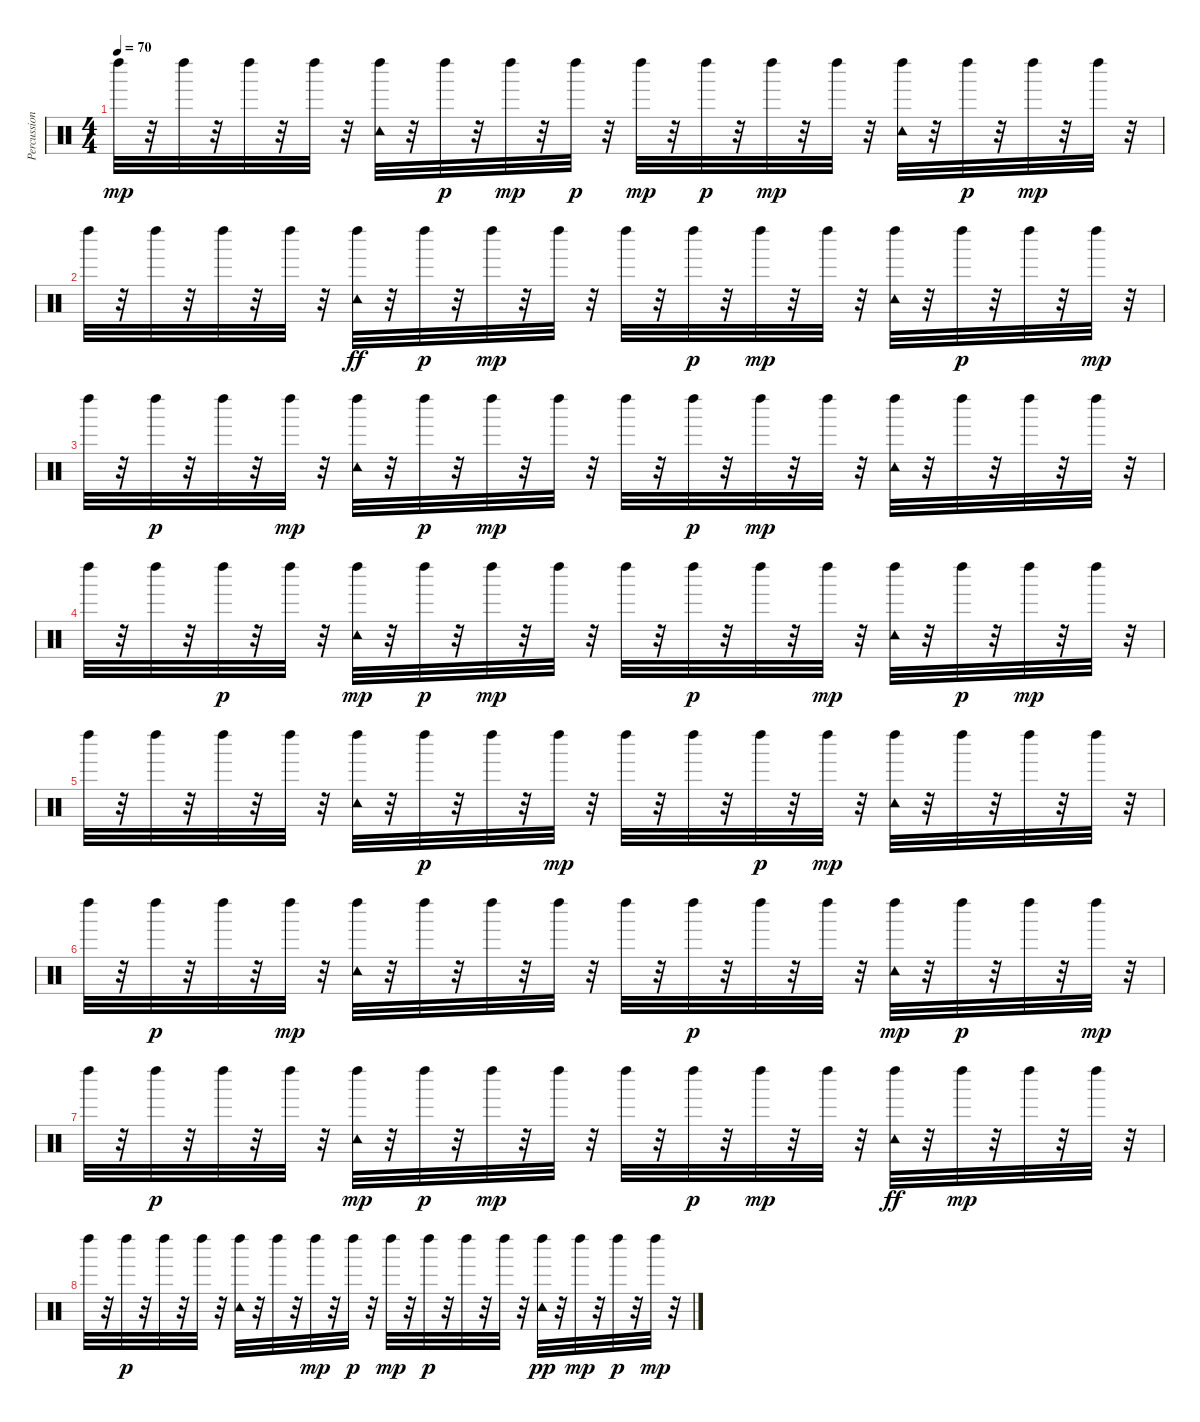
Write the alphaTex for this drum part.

\track ("Percussion" "Percussion") {instrument percussion}
\staff {score}
\articulation defaults
\ts (4 4)
\tempo 70
\clef neutral
\ks c "Left Maraca (hit)".32{dy mp}
r.32 "Left Maraca (hit)".32 r.32 "Left Maraca (hit)".32 r.32 "Left Maraca (hit)".32 r.32 ("Tambourine (hit)" "Left Maraca (hit)").32 r.32 "Left Maraca (hit)".32{dy p} r.32 "Left Maraca (hit)".32{dy mp} r.32 "Left Maraca (hit)".32{dy p} r.32 "Left Maraca (hit)".32{dy mp} r.32 "Left Maraca (hit)".32{dy p} r.32 "Left Maraca (hit)".32{dy mp} r.32 "Left Maraca (hit)".32 r.32 ("Tambourine (hit)" "Left Maraca (hit)").32 r.32 "Left Maraca (hit)".32{dy p} r.32 "Left Maraca (hit)".32{dy mp} r.32 "Left Maraca (hit)".32 r.32 |
"Left Maraca (hit)".32 r.32 "Left Maraca (hit)".32 r.32 "Left Maraca (hit)".32 r.32 "Left Maraca (hit)".32 r.32 ("Left Maraca (hit)" "Tambourine (hit)").32{dy ff} r.32 "Left Maraca (hit)".32{dy p} r.32 "Left Maraca (hit)".32{dy mp} r.32 "Left Maraca (hit)".32 r.32 "Left Maraca (hit)".32 r.32 "Left Maraca (hit)".32{dy p} r.32 "Left Maraca (hit)".32{dy mp} r.32 "Left Maraca (hit)".32 r.32 ("Tambourine (hit)" "Left Maraca (hit)").32 r.32 "Left Maraca (hit)".32{dy p} r.32 "Left Maraca (hit)".32 r.32 "Left Maraca (hit)".32{dy mp} r.32 |
"Left Maraca (hit)".32 r.32 "Left Maraca (hit)".32{dy p} r.32 "Left Maraca (hit)".32 r.32 "Left Maraca (hit)".32{dy mp} r.32 ("Tambourine (hit)" "Left Maraca (hit)").32 r.32 "Left Maraca (hit)".32{dy p} r.32 "Left Maraca (hit)".32{dy mp} r.32 "Left Maraca (hit)".32 r.32 "Left Maraca (hit)".32 r.32 "Left Maraca (hit)".32{dy p} r.32 "Left Maraca (hit)".32{dy mp} r.32 "Left Maraca (hit)".32 r.32 ("Tambourine (hit)" "Left Maraca (hit)").32 r.32 "Left Maraca (hit)".32 r.32 "Left Maraca (hit)".32 r.32 "Left Maraca (hit)".32 r.32 |
"Left Maraca (hit)".32 r.32 "Left Maraca (hit)".32 r.32 "Left Maraca (hit)".32{dy p} r.32 "Left Maraca (hit)".32 r.32 ("Tambourine (hit)" "Left Maraca (hit)").32{dy mp} r.32 "Left Maraca (hit)".32{dy p} r.32 "Left Maraca (hit)".32{dy mp} r.32 "Left Maraca (hit)".32 r.32 "Left Maraca (hit)".32 r.32 "Left Maraca (hit)".32{dy p} r.32 "Left Maraca (hit)".32 r.32 "Left Maraca (hit)".32{dy mp} r.32 ("Tambourine (hit)" "Left Maraca (hit)").32 r.32 "Left Maraca (hit)".32{dy p} r.32 "Left Maraca (hit)".32{dy mp} r.32 "Left Maraca (hit)".32 r.32 |
"Left Maraca (hit)".32 r.32 "Left Maraca (hit)".32 r.32 "Left Maraca (hit)".32 r.32 "Left Maraca (hit)".32 r.32 ("Tambourine (hit)" "Left Maraca (hit)").32 r.32 "Left Maraca (hit)".32{dy p} r.32 "Left Maraca (hit)".32 r.32 "Left Maraca (hit)".32{dy mp} r.32 "Left Maraca (hit)".32 r.32 "Left Maraca (hit)".32 r.32 "Left Maraca (hit)".32{dy p} r.32 "Left Maraca (hit)".32{dy mp} r.32 ("Tambourine (hit)" "Left Maraca (hit)").32 r.32 "Left Maraca (hit)".32 r.32 "Left Maraca (hit)".32 r.32 "Left Maraca (hit)".32 r.32 |
"Left Maraca (hit)".32 r.32 "Left Maraca (hit)".32{dy p} r.32 "Left Maraca (hit)".32 r.32 "Left Maraca (hit)".32{dy mp} r.32 ("Tambourine (hit)" "Left Maraca (hit)").32 r.32 "Left Maraca (hit)".32 r.32 "Left Maraca (hit)".32 r.32 "Left Maraca (hit)".32 r.32 "Left Maraca (hit)".32 r.32 "Left Maraca (hit)".32{dy p} r.32 "Left Maraca (hit)".32 r.32 "Left Maraca (hit)".32 r.32 ("Tambourine (hit)" "Left Maraca (hit)").32{dy mp} r.32 "Left Maraca (hit)".32{dy p} r.32 "Left Maraca (hit)".32 r.32 "Left Maraca (hit)".32{dy mp} r.32 |
"Left Maraca (hit)".32 r.32 "Left Maraca (hit)".32{dy p} r.32 "Left Maraca (hit)".32 r.32 "Left Maraca (hit)".32 r.32 ("Tambourine (hit)" "Left Maraca (hit)").32{dy mp} r.32 "Left Maraca (hit)".32{dy p} r.32 "Left Maraca (hit)".32{dy mp} r.32 "Left Maraca (hit)".32 r.32 "Left Maraca (hit)".32 r.32 "Left Maraca (hit)".32{dy p} r.32 "Left Maraca (hit)".32{dy mp} r.32 "Left Maraca (hit)".32 r.32 ("Left Maraca (hit)" "Tambourine (hit)").32{dy ff} r.32 "Left Maraca (hit)".32{dy mp} r.32 "Left Maraca (hit)".32 r.32 "Left Maraca (hit)".32 r.32 |
"Left Maraca (hit)".32 r.32 "Left Maraca (hit)".32{dy p} r.32 "Left Maraca (hit)".32 r.32 "Left Maraca (hit)".32 r.32 ("Tambourine (hit)" "Left Maraca (hit)").32 r.32 "Left Maraca (hit)".32 r.32 "Left Maraca (hit)".32{dy mp} r.32 "Left Maraca (hit)".32{dy p} r.32 "Left Maraca (hit)".32{dy mp} r.32 "Left Maraca (hit)".32{dy p} r.32 "Left Maraca (hit)".32 r.32 "Left Maraca (hit)".32 r.32 ("Tambourine (hit)" "Left Maraca (hit)").32{dy pp} r.32 "Left Maraca (hit)".32{dy mp} r.32 "Left Maraca (hit)".32{dy p} r.32 "Left Maraca (hit)".32{dy mp} r.32
